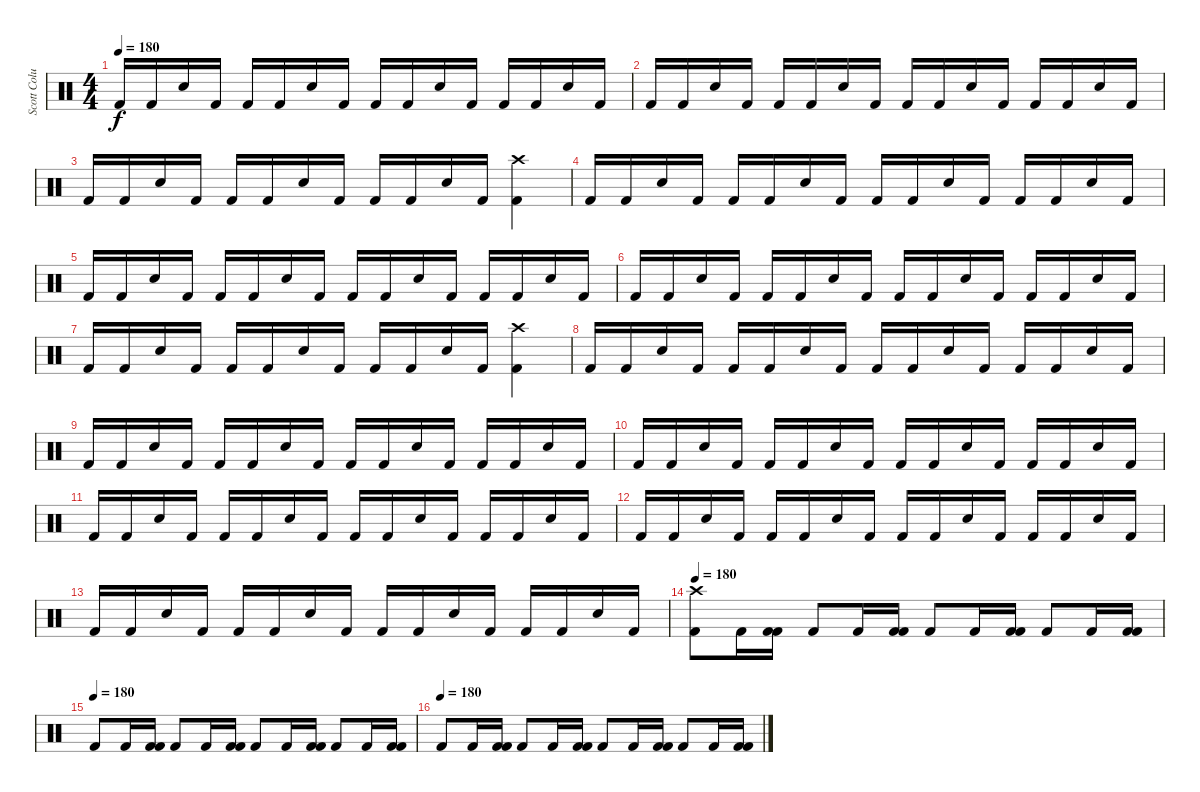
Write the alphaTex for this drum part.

\track ("Scott Columbus" "Scott Colu") {instrument percussion}
\staff {score}
\articulation defaults
\ts (4 4)
\tempo 180
\clef neutral
\ks c "Kick (hit) 2".16{dy f} "Kick (hit) 2".16 "Snare (hit) 2".16 "Kick (hit) 2".16 "Kick (hit) 2".16 "Kick (hit) 2".16 "Snare (hit) 2".16 "Kick (hit) 2".16 "Kick (hit) 2".16 "Kick (hit) 2".16 "Snare (hit) 2".16 "Kick (hit) 2".16 "Kick (hit) 2".16 "Kick (hit) 2".16 "Snare (hit) 2".16 "Kick (hit) 2".16
|
"Kick (hit) 2".16 "Kick (hit) 2".16 "Snare (hit) 2".16 "Kick (hit) 2".16 "Kick (hit) 2".16 "Kick (hit) 2".16 "Snare (hit) 2".16 "Kick (hit) 2".16 "Kick (hit) 2".16 "Kick (hit) 2".16 "Snare (hit) 2".16 "Kick (hit) 2".16 "Kick (hit) 2".16 "Kick (hit) 2".16 "Snare (hit) 2".16 "Kick (hit) 2".16 |
"Kick (hit) 2".16 "Kick (hit) 2".16 "Snare (hit) 2".16 "Kick (hit) 2".16 "Kick (hit) 2".16 "Kick (hit) 2".16 "Snare (hit) 2".16 "Kick (hit) 2".16 "Kick (hit) 2".16 "Kick (hit) 2".16 "Snare (hit) 2".16 "Kick (hit) 2".16 ("Kick (hit) 2" "Crash high (hit)").4 |
"Kick (hit) 2".16 "Kick (hit) 2".16 "Snare (hit) 2".16 "Kick (hit) 2".16 "Kick (hit) 2".16 "Kick (hit) 2".16 "Snare (hit) 2".16 "Kick (hit) 2".16 "Kick (hit) 2".16 "Kick (hit) 2".16 "Snare (hit) 2".16 "Kick (hit) 2".16 "Kick (hit) 2".16 "Kick (hit) 2".16 "Snare (hit) 2".16 "Kick (hit) 2".16 |
"Kick (hit) 2".16 "Kick (hit) 2".16 "Snare (hit) 2".16 "Kick (hit) 2".16 "Kick (hit) 2".16 "Kick (hit) 2".16 "Snare (hit) 2".16 "Kick (hit) 2".16 "Kick (hit) 2".16 "Kick (hit) 2".16 "Snare (hit) 2".16 "Kick (hit) 2".16 "Kick (hit) 2".16 "Kick (hit) 2".16 "Snare (hit) 2".16 "Kick (hit) 2".16 |
"Kick (hit) 2".16 "Kick (hit) 2".16 "Snare (hit) 2".16 "Kick (hit) 2".16 "Kick (hit) 2".16 "Kick (hit) 2".16 "Snare (hit) 2".16 "Kick (hit) 2".16 "Kick (hit) 2".16 "Kick (hit) 2".16 "Snare (hit) 2".16 "Kick (hit) 2".16 "Kick (hit) 2".16 "Kick (hit) 2".16 "Snare (hit) 2".16 "Kick (hit) 2".16 |
"Kick (hit) 2".16 "Kick (hit) 2".16 "Snare (hit) 2".16 "Kick (hit) 2".16 "Kick (hit) 2".16 "Kick (hit) 2".16 "Snare (hit) 2".16 "Kick (hit) 2".16 "Kick (hit) 2".16 "Kick (hit) 2".16 "Snare (hit) 2".16 "Kick (hit) 2".16 ("Kick (hit) 2" "Crash high (hit)").4 |
"Kick (hit) 2".16 "Kick (hit) 2".16 "Snare (hit) 2".16 "Kick (hit) 2".16 "Kick (hit) 2".16 "Kick (hit) 2".16 "Snare (hit) 2".16 "Kick (hit) 2".16 "Kick (hit) 2".16 "Kick (hit) 2".16 "Snare (hit) 2".16 "Kick (hit) 2".16 "Kick (hit) 2".16 "Kick (hit) 2".16 "Snare (hit) 2".16 "Kick (hit) 2".16 |
"Kick (hit) 2".16 "Kick (hit) 2".16 "Snare (hit) 2".16 "Kick (hit) 2".16 "Kick (hit) 2".16 "Kick (hit) 2".16 "Snare (hit) 2".16 "Kick (hit) 2".16 "Kick (hit) 2".16 "Kick (hit) 2".16 "Snare (hit) 2".16 "Kick (hit) 2".16 "Kick (hit) 2".16 "Kick (hit) 2".16 "Snare (hit) 2".16 "Kick (hit) 2".16 |
"Kick (hit) 2".16 "Kick (hit) 2".16 "Snare (hit) 2".16 "Kick (hit) 2".16 "Kick (hit) 2".16 "Kick (hit) 2".16 "Snare (hit) 2".16 "Kick (hit) 2".16 "Kick (hit) 2".16 "Kick (hit) 2".16 "Snare (hit) 2".16 "Kick (hit) 2".16 "Kick (hit) 2".16 "Kick (hit) 2".16 "Snare (hit) 2".16 "Kick (hit) 2".16 |
"Kick (hit) 2".16 "Kick (hit) 2".16 "Snare (hit) 2".16 "Kick (hit) 2".16 "Kick (hit) 2".16 "Kick (hit) 2".16 "Snare (hit) 2".16 "Kick (hit) 2".16 "Kick (hit) 2".16 "Kick (hit) 2".16 "Snare (hit) 2".16 "Kick (hit) 2".16 "Kick (hit) 2".16 "Kick (hit) 2".16 "Snare (hit) 2".16 "Kick (hit) 2".16 |
"Kick (hit) 2".16 "Kick (hit) 2".16 "Snare (hit) 2".16 "Kick (hit) 2".16 "Kick (hit) 2".16 "Kick (hit) 2".16 "Snare (hit) 2".16 "Kick (hit) 2".16 "Kick (hit) 2".16 "Kick (hit) 2".16 "Snare (hit) 2".16 "Kick (hit) 2".16 "Kick (hit) 2".16 "Kick (hit) 2".16 "Snare (hit) 2".16 "Kick (hit) 2".16 |
"Kick (hit) 2".16 "Kick (hit) 2".16 "Snare (hit) 2".16 "Kick (hit) 2".16 "Kick (hit) 2".16 "Kick (hit) 2".16 "Snare (hit) 2".16 "Kick (hit) 2".16 "Kick (hit) 2".16 "Kick (hit) 2".16 "Snare (hit) 2".16 "Kick (hit) 2".16 "Kick (hit) 2".16 "Kick (hit) 2".16 "Snare (hit) 2".16 "Kick (hit) 2".16 |
\tempo 180
("Crash high (hit)" "Kick (hit) 2").8 "Kick (hit) 2".16 ("Kick (hit) 2" "Kick (hit) 2").16 "Kick (hit) 2".8 "Kick (hit) 2".16 ("Kick (hit) 2" "Kick (hit) 2").16 "Kick (hit) 2".8 "Kick (hit) 2".16 ("Kick (hit) 2" "Kick (hit) 2").16 "Kick (hit) 2".8 "Kick (hit) 2".16 ("Kick (hit) 2" "Kick (hit) 2").16 |
\tempo (180)
"Kick (hit) 2".8 "Kick (hit) 2".16 ("Kick (hit) 2" "Kick (hit) 2").16 "Kick (hit) 2".8 "Kick (hit) 2".16 ("Kick (hit) 2" "Kick (hit) 2").16 "Kick (hit) 2".8 "Kick (hit) 2".16 ("Kick (hit) 2" "Kick (hit) 2").16 "Kick (hit) 2".8 "Kick (hit) 2".16 ("Kick (hit) 2" "Kick (hit) 2").16 |
\tempo (180)
"Kick (hit) 2".8 "Kick (hit) 2".16 ("Kick (hit) 2" "Kick (hit) 2").16 "Kick (hit) 2".8 "Kick (hit) 2".16 ("Kick (hit) 2" "Kick (hit) 2").16 "Kick (hit) 2".8 "Kick (hit) 2".16 ("Kick (hit) 2" "Kick (hit) 2").16 "Kick (hit) 2".8 "Kick (hit) 2".16 ("Kick (hit) 2" "Kick (hit) 2").16
